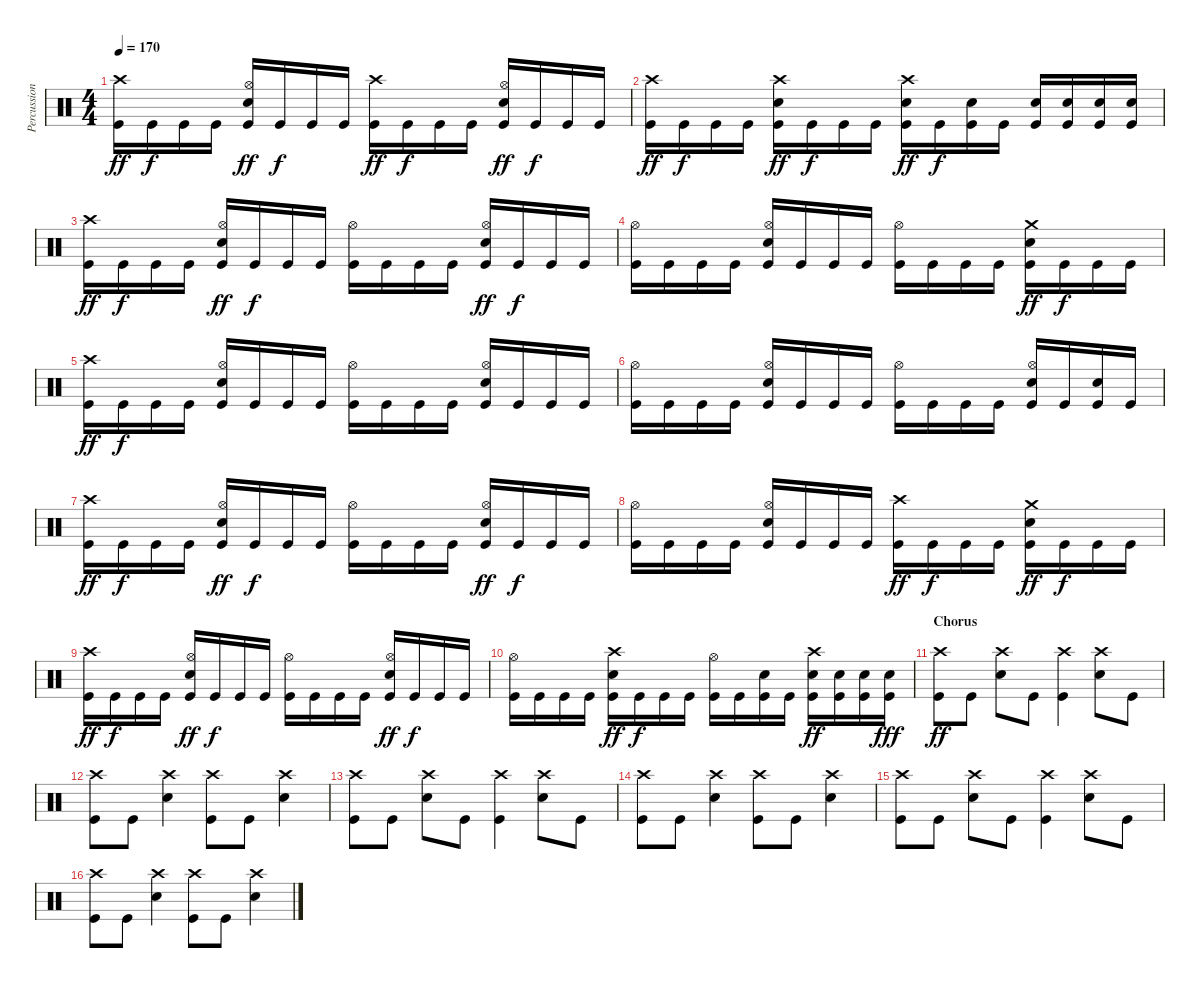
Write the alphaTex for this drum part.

\track ("Percussion" "Percussion") {instrument percussion}
\staff {score}
\articulation defaults
\ts (4 4)
\tempo 170
\clef neutral
\ks c
("Crash high (hit)" "Kick (hit)").16{dy ff} "Kick (hit)".16{dy f} "Kick (hit)".16 "Kick (hit)".16 ("Hi-Hat (open)" "Snare (hit) 2" "Kick (hit)").16{dy ff} "Kick (hit)".16{dy f} "Kick (hit)".16 "Kick (hit)".16 ("Crash high (hit)" "Kick (hit)").16{dy ff} "Kick (hit)".16{dy f} "Kick (hit)".16 "Kick (hit)".16 ("Hi-Hat (open)" "Snare (hit) 2" "Kick (hit)").16{dy ff} "Kick (hit)".16{dy f} "Kick (hit)".16 "Kick (hit)".16 |
("Crash high (hit)" "Kick (hit)").16{dy ff} "Kick (hit)".16{dy f} "Kick (hit)".16 "Kick (hit)".16 ("Crash high (hit)" "Snare (hit) 2" "Kick (hit)").16{dy ff} "Kick (hit)".16{dy f} "Kick (hit)".16 "Kick (hit)".16 ("Crash high (hit)" "Snare (hit) 2" "Kick (hit)").16{dy ff} "Kick (hit)".16{dy f} ("Snare (hit) 2" "Kick (hit)").16 "Kick (hit)".16 ("Snare (hit) 2" "Kick (hit)").16 ("Snare (hit) 2" "Kick (hit)").16 ("Snare (hit) 2" "Kick (hit)").16 ("Snare (hit) 2" "Kick (hit)").16 |
("Crash high (hit)" "Kick (hit)").16{dy ff} "Kick (hit)".16{dy f} "Kick (hit)".16 "Kick (hit)".16 ("Hi-Hat (open)" "Snare (hit) 2" "Kick (hit)").16{dy ff} "Kick (hit)".16{dy f} "Kick (hit)".16 "Kick (hit)".16 ("Hi-Hat (open)" "Kick (hit)").16 "Kick (hit)".16 "Kick (hit)".16 "Kick (hit)".16 ("Hi-Hat (open)" "Snare (hit) 2" "Kick (hit)").16{dy ff} "Kick (hit)".16{dy f} "Kick (hit)".16 "Kick (hit)".16 |
("Hi-Hat (open)" "Kick (hit)").16 "Kick (hit)".16 "Kick (hit)".16 "Kick (hit)".16 ("Hi-Hat (open)" "Snare (hit) 2" "Kick (hit)").16 "Kick (hit)".16 "Kick (hit)".16 "Kick (hit)".16 ("Hi-Hat (open)" "Kick (hit)").16 "Kick (hit)".16 "Kick (hit)".16 "Kick (hit)".16 ("Crash medium (hit)" "Snare (hit) 2" "Kick (hit)").16{dy ff} "Kick (hit)".16{dy f} "Kick (hit)".16 "Kick (hit)".16 |
("Crash high (hit)" "Kick (hit)").16{dy ff} "Kick (hit)".16{dy f} "Kick (hit)".16 "Kick (hit)".16 ("Hi-Hat (open)" "Snare (hit) 2" "Kick (hit)").16 "Kick (hit)".16 "Kick (hit)".16 "Kick (hit)".16 ("Hi-Hat (open)" "Kick (hit)").16 "Kick (hit)".16 "Kick (hit)".16 "Kick (hit)".16 ("Hi-Hat (open)" "Snare (hit) 2" "Kick (hit)").16 "Kick (hit)".16 "Kick (hit)".16 "Kick (hit)".16 |
("Hi-Hat (open)" "Kick (hit)").16 "Kick (hit)".16 "Kick (hit)".16 "Kick (hit)".16 ("Hi-Hat (open)" "Snare (hit) 2" "Kick (hit)").16 "Kick (hit)".16 "Kick (hit)".16 "Kick (hit)".16 ("Hi-Hat (open)" "Kick (hit)").16 "Kick (hit)".16 "Kick (hit)".16 "Kick (hit)".16 ("Hi-Hat (open)" "Snare (hit) 2" "Kick (hit)").16 "Kick (hit)".16 ("Snare (hit) 2" "Kick (hit)").16 "Kick (hit)".16 |
("Crash high (hit)" "Kick (hit)").16{dy ff} "Kick (hit)".16{dy f} "Kick (hit)".16 "Kick (hit)".16 ("Hi-Hat (open)" "Snare (hit) 2" "Kick (hit)").16{dy ff} "Kick (hit)".16{dy f} "Kick (hit)".16 "Kick (hit)".16 ("Hi-Hat (open)" "Kick (hit)").16 "Kick (hit)".16 "Kick (hit)".16 "Kick (hit)".16 ("Hi-Hat (open)" "Snare (hit) 2" "Kick (hit)").16{dy ff} "Kick (hit)".16{dy f} "Kick (hit)".16 "Kick (hit)".16 |
("Hi-Hat (open)" "Kick (hit)").16 "Kick (hit)".16 "Kick (hit)".16 "Kick (hit)".16 ("Hi-Hat (open)" "Snare (hit) 2" "Kick (hit)").16 "Kick (hit)".16 "Kick (hit)".16 "Kick (hit)".16 ("Crash high (hit)" "Kick (hit)").16{dy ff} "Kick (hit)".16{dy f} "Kick (hit)".16 "Kick (hit)".16 ("Crash medium (hit)" "Snare (hit) 2" "Kick (hit)").16{dy ff} "Kick (hit)".16{dy f} "Kick (hit)".16 "Kick (hit)".16 |
("Crash high (hit)" "Kick (hit)").16{dy ff} "Kick (hit)".16{dy f} "Kick (hit)".16 "Kick (hit)".16 ("Hi-Hat (open)" "Snare (hit) 2" "Kick (hit)").16{dy ff} "Kick (hit)".16{dy f} "Kick (hit)".16 "Kick (hit)".16 ("Hi-Hat (open)" "Kick (hit)").16 "Kick (hit)".16 "Kick (hit)".16 "Kick (hit)".16 ("Hi-Hat (open)" "Snare (hit) 2" "Kick (hit)").16{dy ff} "Kick (hit)".16{dy f} "Kick (hit)".16 "Kick (hit)".16 |
("Hi-Hat (open)" "Kick (hit)").16 "Kick (hit)".16 "Kick (hit)".16 "Kick (hit)".16 ("Crash high (hit)" "Snare (hit) 2" "Kick (hit)").16{dy ff} "Kick (hit)".16{dy f} "Kick (hit)".16 "Kick (hit)".16 ("Hi-Hat (open)" "Kick (hit)").16 "Kick (hit)".16 ("Snare (hit) 2" "Kick (hit)").16 "Kick (hit)".16 ("Crash high (hit)" "Snare (hit) 2" "Kick (hit)").16{dy ff} ("Snare (hit) 2" "Kick (hit)").16 ("Snare (hit) 2" "Kick (hit)").16 ("Snare (hit) 2" "Kick (hit)").16{dy fff} |
\section ("" "Chorus")
("Crash high (hit)" "Kick (hit)").8{dy ff} "Kick (hit)".8 ("Crash high (hit)" "Snare (hit) 2").8 "Kick (hit)".8 ("Crash high (hit)" "Kick (hit)").4 ("Crash high (hit)" "Snare (hit) 2").8 "Kick (hit)".8 |
("Crash high (hit)" "Kick (hit)").8 "Kick (hit)".8 ("Crash high (hit)" "Snare (hit) 2").4 ("Crash high (hit)" "Kick (hit)").8 "Kick (hit)".8 ("Crash high (hit)" "Snare (hit) 2").4 |
("Crash high (hit)" "Kick (hit)").8 "Kick (hit)".8 ("Crash high (hit)" "Snare (hit) 2").8 "Kick (hit)".8 ("Crash high (hit)" "Kick (hit)").4 ("Crash high (hit)" "Snare (hit) 2").8 "Kick (hit)".8 |
("Crash high (hit)" "Kick (hit)").8 "Kick (hit)".8 ("Crash high (hit)" "Snare (hit) 2").4 ("Crash high (hit)" "Kick (hit)").8 "Kick (hit)".8 ("Crash high (hit)" "Snare (hit) 2").4 |
("Crash high (hit)" "Kick (hit)").8 "Kick (hit)".8 ("Crash high (hit)" "Snare (hit) 2").8 "Kick (hit)".8 ("Crash high (hit)" "Kick (hit)").4 ("Crash high (hit)" "Snare (hit) 2").8 "Kick (hit)".8 |
("Crash high (hit)" "Kick (hit)").8 "Kick (hit)".8 ("Crash high (hit)" "Snare (hit) 2").4 ("Crash high (hit)" "Kick (hit)").8 "Kick (hit)".8 ("Crash high (hit)" "Snare (hit) 2").4
